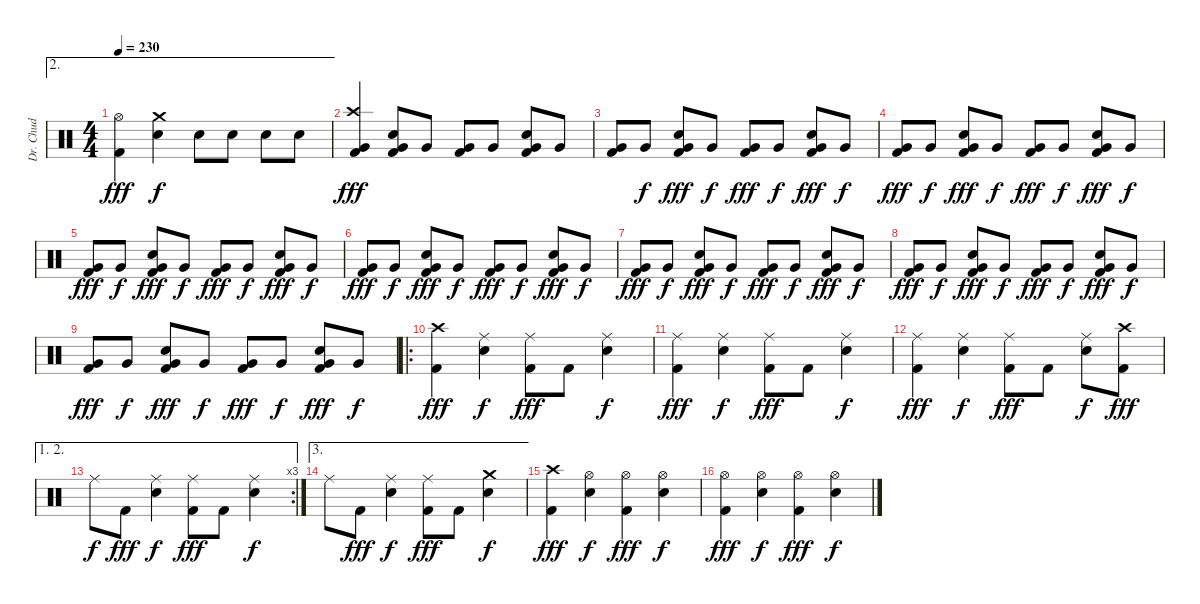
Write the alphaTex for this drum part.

\track ("Dr. Chud" "Dr. Chud") {instrument percussion}
\staff {score}
\articulation defaults
\ae 2
\ts (4 4)
\tempo 230
\clef neutral
\ks c
("Hi-Hat (open)" "Kick (hit) 2").4{dy fff} ("Crash medium (hit)" "Snare (hit) 2").4{dy f} "Snare (hit) 2".8 "Snare (hit) 2".8 "Snare (hit) 2".8 "Snare (hit) 2".8 |
("Crash high (hit)" "Very Low Tom (hit)" "Kick (hit) 2").4{dy fff} ("Snare (hit) 2" "Very Low Tom (hit)" "Kick (hit) 2").8 "Very Low Tom (hit)".8 ("Very Low Tom (hit)" "Kick (hit) 2").8 "Very Low Tom (hit)".8 ("Snare (hit) 2" "Very Low Tom (hit)" "Kick (hit) 2").8 "Very Low Tom (hit)".8 |
("Very Low Tom (hit)" "Kick (hit) 2").8 "Very Low Tom (hit)".8{dy f} ("Snare (hit) 2" "Very Low Tom (hit)" "Kick (hit) 2").8{dy fff} "Very Low Tom (hit)".8{dy f} ("Very Low Tom (hit)" "Kick (hit) 2").8{dy fff} "Very Low Tom (hit)".8{dy f} ("Snare (hit) 2" "Very Low Tom (hit)" "Kick (hit) 2").8{dy fff} "Very Low Tom (hit)".8{dy f} |
("Very Low Tom (hit)" "Kick (hit) 2").8{dy fff} "Very Low Tom (hit)".8{dy f} ("Snare (hit) 2" "Very Low Tom (hit)" "Kick (hit) 2").8{dy fff} "Very Low Tom (hit)".8{dy f} ("Very Low Tom (hit)" "Kick (hit) 2").8{dy fff} "Very Low Tom (hit)".8{dy f} ("Snare (hit) 2" "Very Low Tom (hit)" "Kick (hit) 2").8{dy fff} "Very Low Tom (hit)".8{dy f} |
("Very Low Tom (hit)" "Kick (hit) 2").8{dy fff} "Very Low Tom (hit)".8{dy f} ("Snare (hit) 2" "Very Low Tom (hit)" "Kick (hit) 2").8{dy fff} "Very Low Tom (hit)".8{dy f} ("Very Low Tom (hit)" "Kick (hit) 2").8{dy fff} "Very Low Tom (hit)".8{dy f} ("Snare (hit) 2" "Very Low Tom (hit)" "Kick (hit) 2").8{dy fff} "Very Low Tom (hit)".8{dy f} |
("Very Low Tom (hit)" "Kick (hit) 2").8{dy fff} "Very Low Tom (hit)".8{dy f} ("Snare (hit) 2" "Very Low Tom (hit)" "Kick (hit) 2").8{dy fff} "Very Low Tom (hit)".8{dy f} ("Very Low Tom (hit)" "Kick (hit) 2").8{dy fff} "Very Low Tom (hit)".8{dy f} ("Snare (hit) 2" "Very Low Tom (hit)" "Kick (hit) 2").8{dy fff} "Very Low Tom (hit)".8{dy f} |
("Very Low Tom (hit)" "Kick (hit) 2").8{dy fff} "Very Low Tom (hit)".8{dy f} ("Snare (hit) 2" "Very Low Tom (hit)" "Kick (hit) 2").8{dy fff} "Very Low Tom (hit)".8{dy f} ("Very Low Tom (hit)" "Kick (hit) 2").8{dy fff} "Very Low Tom (hit)".8{dy f} ("Snare (hit) 2" "Very Low Tom (hit)" "Kick (hit) 2").8{dy fff} "Very Low Tom (hit)".8{dy f} |
("Very Low Tom (hit)" "Kick (hit) 2").8{dy fff} "Very Low Tom (hit)".8{dy f} ("Snare (hit) 2" "Very Low Tom (hit)" "Kick (hit) 2").8{dy fff} "Very Low Tom (hit)".8{dy f} ("Very Low Tom (hit)" "Kick (hit) 2").8{dy fff} "Very Low Tom (hit)".8{dy f} ("Snare (hit) 2" "Very Low Tom (hit)" "Kick (hit) 2").8{dy fff} "Very Low Tom (hit)".8{dy f} |
("Very Low Tom (hit)" "Kick (hit) 2").8{dy fff} "Very Low Tom (hit)".8{dy f} ("Snare (hit) 2" "Very Low Tom (hit)" "Kick (hit) 2").8{dy fff} "Very Low Tom (hit)".8{dy f} ("Very Low Tom (hit)" "Kick (hit) 2").8{dy fff} "Very Low Tom (hit)".8{dy f} ("Snare (hit) 2" "Very Low Tom (hit)" "Kick (hit) 2").8{dy fff} "Very Low Tom (hit)".8{dy f} |
\ro
("Crash high (hit)" "Kick (hit) 2").4{dy fff} ("Ride (middle)" "Snare (hit) 2").4{dy f} ("Ride (middle)" "Kick (hit) 2").8{dy fff} "Kick (hit) 2".8 ("Ride (middle)" "Snare (hit) 2").4{dy f} |
("Ride (middle)" "Kick (hit) 2").4{dy fff} ("Ride (middle)" "Snare (hit) 2").4{dy f} ("Ride (middle)" "Kick (hit) 2").8{dy fff} "Kick (hit) 2".8 ("Ride (middle)" "Snare (hit) 2").4{dy f} |
("Ride (middle)" "Kick (hit) 2").4{dy fff} ("Ride (middle)" "Snare (hit) 2").4{dy f} ("Ride (middle)" "Kick (hit) 2").8{dy fff} "Kick (hit) 2".8 ("Ride (middle)" "Snare (hit) 2").8{dy f} ("Crash high (hit)" "Kick (hit) 2").8{dy fff} |
\ae (1 2)
\rc 3 "Ride (middle)".8{dy f} "Kick (hit) 2".8{dy fff}
("Ride (middle)" "Snare (hit) 2").4{dy f} ("Ride (middle)" "Kick (hit) 2").8{dy fff} "Kick (hit) 2".8 ("Ride (middle)" "Snare (hit) 2").4{dy f} |
\ae 3 "Ride (middle)".8 "Kick (hit) 2".8{dy fff}
("Ride (middle)" "Snare (hit) 2").4{dy f} ("Ride (middle)" "Kick (hit) 2").8{dy fff} "Kick (hit) 2".8 ("Crash medium (hit)" "Snare (hit) 2").4{dy f} |
("Crash high (hit)" "Kick (hit) 2").4{dy fff} ("Hi-Hat (open)" "Snare (hit) 2").4{dy f} ("Hi-Hat (open)" "Kick (hit) 2").4{dy fff} ("Hi-Hat (open)" "Snare (hit) 2").4{dy f} |
("Hi-Hat (open)" "Kick (hit) 2").4{dy fff} ("Hi-Hat (open)" "Snare (hit) 2").4{dy f} ("Hi-Hat (open)" "Kick (hit) 2").4{dy fff} ("Hi-Hat (open)" "Snare (hit) 2").4{dy f}
